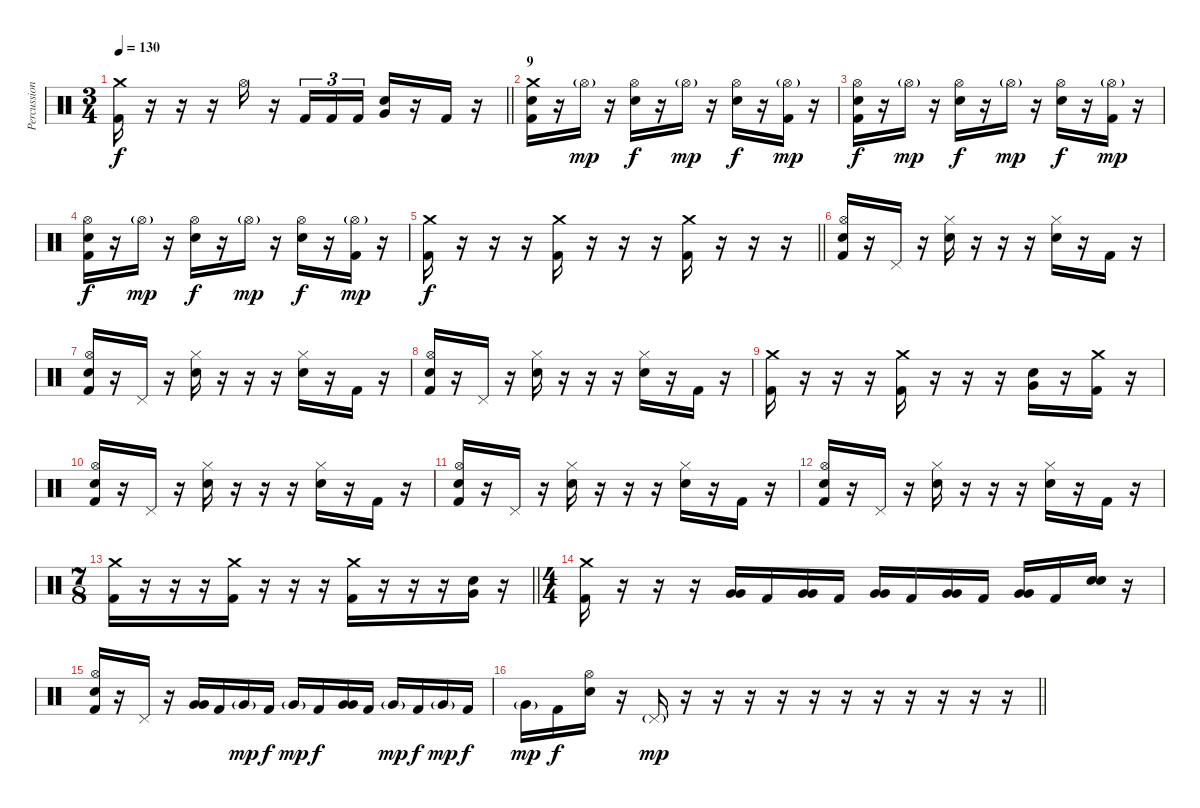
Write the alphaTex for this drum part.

\track ("Percussion" "Percussion") {instrument percussion}
\staff {score}
\articulation defaults
\ts (3 4)
\tempo 130
\clef neutral
\barLineRight lightlight
\ks c
("Crash medium (hit)" "Kick (hit) 2").16{dy f} r.16 r.16 r.16 "Hi-Hat (open)".16 r.16 "Kick (hit) 2".16{tu (3 2)} "Kick (hit) 2".16{tu (3 2)} "Kick (hit) 2".16{tu (3 2)} ("Snare (hit) 2" "Very Low Tom (hit)").16{bu 60} r.16 "Kick (hit) 2".16 r.16 |
\section ("" "9")
("Crash medium (hit)" "Snare (hit) 2" "Kick (hit) 2").16 r.16 "Hi-Hat (open)"{g}.16{dy mp} r.16 ("Hi-Hat (open)" "Snare (hit) 2").16{dy f} r.16 "Hi-Hat (open)"{g}.16{dy mp} r.16 ("Hi-Hat (open)" "Snare (hit) 2").16{dy f} r.16 ("Hi-Hat (open)"{g} "Kick (hit) 2").16{dy mp} r.16 |
("Hi-Hat (open)" "Snare (hit) 2" "Kick (hit) 2").16{dy f} r.16 "Hi-Hat (open)"{g}.16{dy mp} r.16 ("Hi-Hat (open)" "Snare (hit) 2").16{dy f} r.16 "Hi-Hat (open)"{g}.16{dy mp} r.16 ("Hi-Hat (open)" "Snare (hit) 2").16{dy f} r.16 ("Hi-Hat (open)"{g} "Kick (hit) 2").16{dy mp} r.16 |
("Hi-Hat (open)" "Snare (hit) 2" "Kick (hit) 2").16{dy f} r.16 "Hi-Hat (open)"{g}.16{dy mp} r.16 ("Hi-Hat (open)" "Snare (hit) 2").16{dy f} r.16 "Hi-Hat (open)"{g}.16{dy mp} r.16 ("Hi-Hat (open)" "Snare (hit) 2").16{dy f} r.16 ("Hi-Hat (open)"{g} "Kick (hit) 2").16{dy mp} r.16 |
\barLineRight lightlight
("Crash medium (hit)" "Kick (hit) 2").16{dy f} r.16 r.16 r.16 ("Crash medium (hit)" "Kick (hit) 2").16 r.16 r.16 r.16 ("Crash medium (hit)" "Kick (hit) 2").16 r.16 r.16 r.16 |
\section ("" "")
("Hi-Hat (open)" "Snare (hit) 2" "Kick (hit) 2").16 r.16 "Pedal Hi-Hat (hit)".16 r.16 ("Hi-Hat (closed)" "Snare (hit) 2").16 r.16 r.16 r.16 ("Hi-Hat (closed)" "Snare (hit) 2").16 r.16 "Kick (hit) 2".16 r.16 |
("Hi-Hat (open)" "Snare (hit) 2" "Kick (hit) 2").16 r.16 "Pedal Hi-Hat (hit)".16 r.16 ("Hi-Hat (closed)" "Snare (hit) 2").16 r.16 r.16 r.16 ("Hi-Hat (closed)" "Snare (hit) 2").16 r.16 "Kick (hit) 2".16 r.16 |
("Hi-Hat (open)" "Snare (hit) 2" "Kick (hit) 2").16 r.16 "Pedal Hi-Hat (hit)".16 r.16 ("Hi-Hat (closed)" "Snare (hit) 2").16 r.16 r.16 r.16 ("Hi-Hat (closed)" "Snare (hit) 2").16 r.16 "Kick (hit) 2".16 r.16 |
("Crash medium (hit)" "Kick (hit) 2").16 r.16 r.16 r.16 ("Crash medium (hit)" "Kick (hit) 2").16 r.16 r.16 r.16 ("Snare (hit) 2" "Very Low Tom (hit)").16{bu 60} r.16 ("Crash medium (hit)" "Kick (hit) 2").16 r.16 |
("Hi-Hat (open)" "Snare (hit) 2" "Kick (hit) 2").16 r.16 "Pedal Hi-Hat (hit)".16 r.16 ("Hi-Hat (closed)" "Snare (hit) 2").16 r.16 r.16 r.16 ("Hi-Hat (closed)" "Snare (hit) 2").16 r.16 "Kick (hit) 2".16 r.16 |
("Hi-Hat (open)" "Snare (hit) 2" "Kick (hit) 2").16 r.16 "Pedal Hi-Hat (hit)".16 r.16 ("Hi-Hat (closed)" "Snare (hit) 2").16 r.16 r.16 r.16 ("Hi-Hat (closed)" "Snare (hit) 2").16 r.16 "Kick (hit) 2".16 r.16 |
("Hi-Hat (open)" "Snare (hit) 2" "Kick (hit) 2").16 r.16 "Pedal Hi-Hat (hit)".16 r.16 ("Hi-Hat (closed)" "Snare (hit) 2").16 r.16 r.16 r.16 ("Hi-Hat (closed)" "Snare (hit) 2").16 r.16 "Kick (hit) 2".16 r.16 |
\ts (7 8)
\barLineRight lightlight
("Crash medium (hit)" "Kick (hit) 2").16 r.16 r.16 r.16 ("Crash medium (hit)" "Kick (hit) 2").16 r.16 r.16 r.16 ("Crash medium (hit)" "Kick (hit) 2").16 r.16 r.16 r.16 ("Snare (hit) 2" "Very Low Tom (hit)").16{bu 60} r.16 |
\ts (4 4)
\section ("" "")
("Crash medium (hit)" "Kick (hit) 2").16 r.16 r.16 r.16 ("Very Low Tom (hit)" "Very Low Tom (hit)").16{bu 60} "Kick (hit) 2".16 ("Very Low Tom (hit)" "Very Low Tom (hit)").16{bu 60} "Kick (hit) 2".16 ("Very Low Tom (hit)" "Very Low Tom (hit)").16{bu 60} "Kick (hit) 2".16 ("Very Low Tom (hit)" "Very Low Tom (hit)").16{bu 60} "Kick (hit) 2".16 ("Very Low Tom (hit)" "Very Low Tom (hit)").16{bu 60} "Kick (hit) 2".16 ("Snare (hit) 2" "Snare (hit) 2").16{bu 60} r.16 |
("Hi-Hat (open)" "Snare (hit) 2" "Kick (hit) 2").16 r.16 "Pedal Hi-Hat (hit)".16 r.16 ("Very Low Tom (hit)" "Very Low Tom (hit)").16{bu 60} "Kick (hit) 2".16 "Very Low Tom (hit)"{g}.16{dy mp} "Kick (hit) 2".16{dy f} "Very Low Tom (hit)"{g}.16{dy mp} "Kick (hit) 2".16{dy f} ("Very Low Tom (hit)" "Very Low Tom (hit)").16{bu 60} "Kick (hit) 2".16 "Very Low Tom (hit)"{g}.16{dy mp} "Kick (hit) 2".16{dy f} "Very Low Tom (hit)"{g}.16{dy mp} "Kick (hit) 2".16{dy f} |
\barLineRight lightlight "Very Low Tom (hit)"{g}.16{dy mp} "Kick (hit) 2".16{dy f}
("Hi-Hat (open)" "Snare (hit) 2").16 r.16 "Pedal Hi-Hat (hit)"{g}.16{dy mp} r.16 r.16 r.16 r.16 r.16 r.16 r.16 r.16 r.16 r.16 r.16
